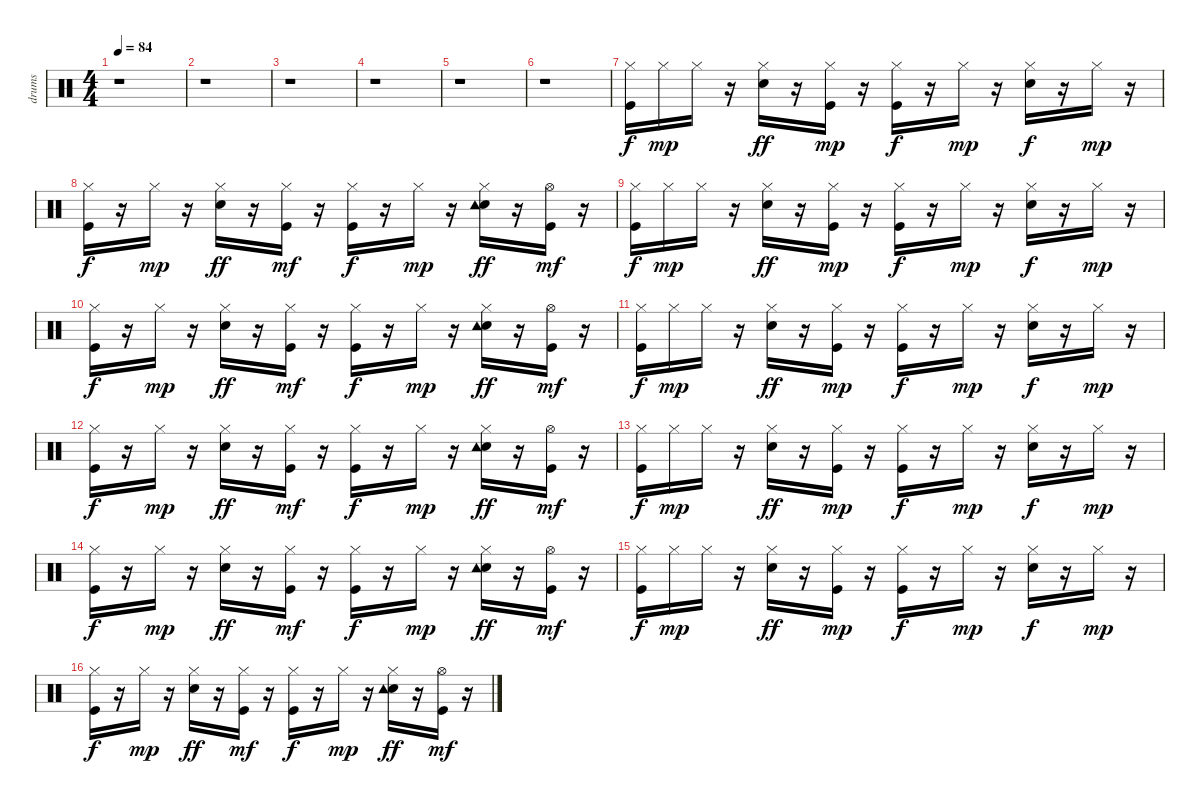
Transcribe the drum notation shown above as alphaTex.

\track ("drums" "drums") {instrument percussion}
\staff {score}
\articulation defaults
\ts (4 4)
\tempo 84
\clef neutral
\ks c
r.1{dy f} |
r.1 |
r.1 |
r.1 |
r.1 |
r.1 |
("Kick (hit)" "Hi-Hat (closed)").16 "Hi-Hat (closed)".16{dy mp} "Hi-Hat (closed)".16 r.16 ("Snare (hit) 2" "Hi-Hat (closed)").16{dy ff} r.16 ("Kick (hit)" "Hi-Hat (closed)").16{dy mp} r.16 ("Kick (hit)" "Hi-Hat (closed)").16{dy f} r.16 "Hi-Hat (closed)".16{dy mp} r.16 ("Snare (hit) 2" "Hi-Hat (closed)").16{dy f} r.16 "Hi-Hat (closed)".16{dy mp} r.16 |
("Kick (hit)" "Hi-Hat (closed)").16{dy f} r.16 "Hi-Hat (closed)".16{dy mp} r.16 ("Snare (hit) 2" "Hi-Hat (closed)").16{dy ff} r.16 ("Kick (hit)" "Hi-Hat (closed)").16{dy mf} r.16 ("Kick (hit)" "Hi-Hat (closed)").16{dy f} r.16 "Hi-Hat (closed)".16{dy mp} r.16 ("Snare (hit) 2" "Hi-Hat (closed)" "Tambourine (hit)").16{dy ff} r.16 ("Kick (hit)" "Hi-Hat (open)").16{dy mf} r.16 |
("Kick (hit)" "Hi-Hat (closed)").16{dy f} "Hi-Hat (closed)".16{dy mp} "Hi-Hat (closed)".16 r.16 ("Snare (hit) 2" "Hi-Hat (closed)").16{dy ff} r.16 ("Kick (hit)" "Hi-Hat (closed)").16{dy mp} r.16 ("Kick (hit)" "Hi-Hat (closed)").16{dy f} r.16 "Hi-Hat (closed)".16{dy mp} r.16 ("Snare (hit) 2" "Hi-Hat (closed)").16{dy f} r.16 "Hi-Hat (closed)".16{dy mp} r.16 |
("Kick (hit)" "Hi-Hat (closed)").16{dy f} r.16 "Hi-Hat (closed)".16{dy mp} r.16 ("Snare (hit) 2" "Hi-Hat (closed)").16{dy ff} r.16 ("Kick (hit)" "Hi-Hat (closed)").16{dy mf} r.16 ("Kick (hit)" "Hi-Hat (closed)").16{dy f} r.16 "Hi-Hat (closed)".16{dy mp} r.16 ("Snare (hit) 2" "Hi-Hat (closed)" "Tambourine (hit)").16{dy ff} r.16 ("Kick (hit)" "Hi-Hat (open)").16{dy mf} r.16 |
("Kick (hit)" "Hi-Hat (closed)").16{dy f} "Hi-Hat (closed)".16{dy mp} "Hi-Hat (closed)".16 r.16 ("Snare (hit) 2" "Hi-Hat (closed)").16{dy ff} r.16 ("Kick (hit)" "Hi-Hat (closed)").16{dy mp} r.16 ("Kick (hit)" "Hi-Hat (closed)").16{dy f} r.16 "Hi-Hat (closed)".16{dy mp} r.16 ("Snare (hit) 2" "Hi-Hat (closed)").16{dy f} r.16 "Hi-Hat (closed)".16{dy mp} r.16 |
("Kick (hit)" "Hi-Hat (closed)").16{dy f} r.16 "Hi-Hat (closed)".16{dy mp} r.16 ("Snare (hit) 2" "Hi-Hat (closed)").16{dy ff} r.16 ("Kick (hit)" "Hi-Hat (closed)").16{dy mf} r.16 ("Kick (hit)" "Hi-Hat (closed)").16{dy f} r.16 "Hi-Hat (closed)".16{dy mp} r.16 ("Snare (hit) 2" "Hi-Hat (closed)" "Tambourine (hit)").16{dy ff} r.16 ("Kick (hit)" "Hi-Hat (open)").16{dy mf} r.16 |
("Kick (hit)" "Hi-Hat (closed)").16{dy f} "Hi-Hat (closed)".16{dy mp} "Hi-Hat (closed)".16 r.16 ("Snare (hit) 2" "Hi-Hat (closed)").16{dy ff} r.16 ("Kick (hit)" "Hi-Hat (closed)").16{dy mp} r.16 ("Kick (hit)" "Hi-Hat (closed)").16{dy f} r.16 "Hi-Hat (closed)".16{dy mp} r.16 ("Snare (hit) 2" "Hi-Hat (closed)").16{dy f} r.16 "Hi-Hat (closed)".16{dy mp} r.16 |
("Kick (hit)" "Hi-Hat (closed)").16{dy f} r.16 "Hi-Hat (closed)".16{dy mp} r.16 ("Snare (hit) 2" "Hi-Hat (closed)").16{dy ff} r.16 ("Kick (hit)" "Hi-Hat (closed)").16{dy mf} r.16 ("Kick (hit)" "Hi-Hat (closed)").16{dy f} r.16 "Hi-Hat (closed)".16{dy mp} r.16 ("Snare (hit) 2" "Hi-Hat (closed)" "Tambourine (hit)").16{dy ff} r.16 ("Kick (hit)" "Hi-Hat (open)").16{dy mf} r.16 |
("Kick (hit)" "Hi-Hat (closed)").16{dy f} "Hi-Hat (closed)".16{dy mp} "Hi-Hat (closed)".16 r.16 ("Snare (hit) 2" "Hi-Hat (closed)").16{dy ff} r.16 ("Kick (hit)" "Hi-Hat (closed)").16{dy mp} r.16 ("Kick (hit)" "Hi-Hat (closed)").16{dy f} r.16 "Hi-Hat (closed)".16{dy mp} r.16 ("Snare (hit) 2" "Hi-Hat (closed)").16{dy f} r.16 "Hi-Hat (closed)".16{dy mp} r.16 |
("Kick (hit)" "Hi-Hat (closed)").16{dy f} r.16 "Hi-Hat (closed)".16{dy mp} r.16 ("Snare (hit) 2" "Hi-Hat (closed)").16{dy ff} r.16 ("Kick (hit)" "Hi-Hat (closed)").16{dy mf} r.16 ("Kick (hit)" "Hi-Hat (closed)").16{dy f} r.16 "Hi-Hat (closed)".16{dy mp} r.16 ("Snare (hit) 2" "Hi-Hat (closed)" "Tambourine (hit)").16{dy ff} r.16 ("Kick (hit)" "Hi-Hat (open)").16{dy mf} r.16
